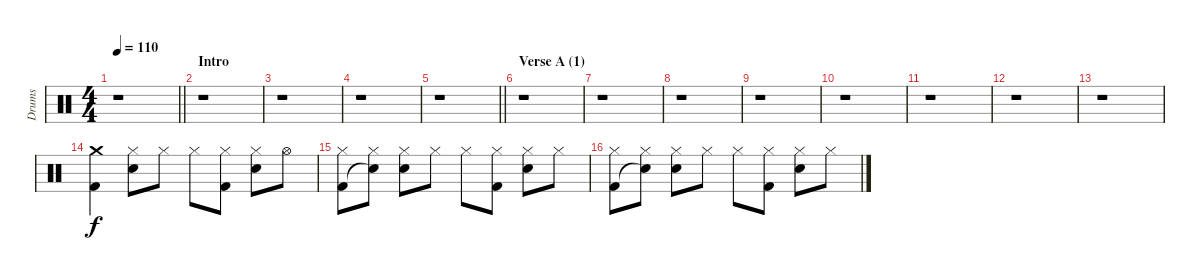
\track ("Drums" "Drums") {instrument percussion}
\staff {score}
\articulation defaults
\ts (4 4)
\tempo 110
\clef neutral
\barLineRight lightlight
\ks c
r.1{dy f} |
\section ("" "Intro")
r.1 |
r.1 |
r.1 |
\barLineRight lightlight
r.1 |
\section ("" "Verse A (1)")
r.1 |
r.1 |
r.1 |
r.1 |
r.1 |
r.1 |
r.1 |
r.1 |
("Crash medium (hit)" "Kick (hit) 2").4 ("Hi-Hat (closed)" "Electric Snare (hit)").8 "Hi-Hat (closed)".8 "Hi-Hat (closed)".8 ("Hi-Hat (closed)" "Kick (hit) 2").8 ("Hi-Hat (closed)" "Electric Snare (hit)").8 "Hi-Hat (open)".8 |
("Hi-Hat (closed)" "Kick (hit) 2").8 ("Hi-Hat (closed)" "Snare (hit)"{t}).8 ("Hi-Hat (closed)" "Electric Snare (hit)").8 "Hi-Hat (closed)".8 "Hi-Hat (closed)".8 ("Hi-Hat (closed)" "Kick (hit) 2").8 ("Hi-Hat (closed)" "Electric Snare (hit)").8 "Hi-Hat (closed)".8 |
("Hi-Hat (closed)" "Kick (hit) 2").8 ("Hi-Hat (closed)" "Snare (hit)"{t}).8 ("Hi-Hat (closed)" "Electric Snare (hit)").8 "Hi-Hat (closed)".8 "Hi-Hat (closed)".8 ("Hi-Hat (closed)" "Kick (hit) 2").8 ("Hi-Hat (closed)" "Electric Snare (hit)").8 "Hi-Hat (closed)".8
